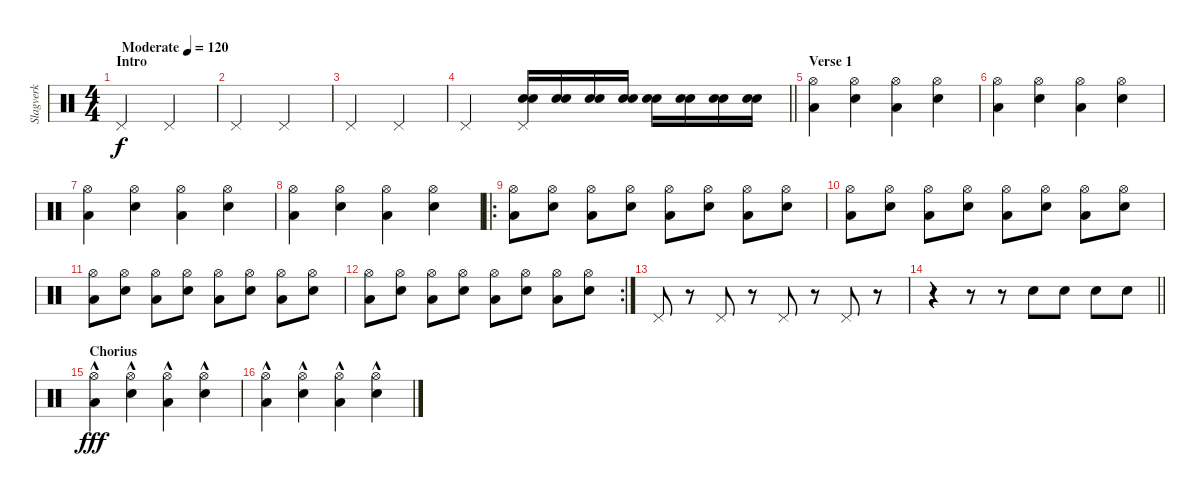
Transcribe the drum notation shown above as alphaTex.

\track ("Slagverk" "Slagverk") {instrument percussion}
\staff {score}
\articulation defaults
\ts (4 4)
\section ("" "Intro")
\tempo (120 "Moderate")
\clef neutral
\ks c "Pedal Hi-Hat (hit)".2{dy f} "Pedal Hi-Hat (hit)".2
|
"Pedal Hi-Hat (hit)".2 "Pedal Hi-Hat (hit)".2 |
"Pedal Hi-Hat (hit)".2 "Pedal Hi-Hat (hit)".2 |
\barLineRight lightlight "Pedal Hi-Hat (hit)".2
("Pedal Hi-Hat (hit)" "Electric Snare (hit)" "Electric Snare (hit)").16 ("Electric Snare (hit)" "Electric Snare (hit)").16 ("Electric Snare (hit)" "Electric Snare (hit)").16 ("Electric Snare (hit)" "Electric Snare (hit)").16 ("Electric Snare (hit)" "Electric Snare (hit)").16 ("Electric Snare (hit)" "Electric Snare (hit)").16 ("Electric Snare (hit)" "Electric Snare (hit)").16 ("Electric Snare (hit)" "Electric Snare (hit)").16 |
\section ("" "Verse 1")
("Hi-Hat (open)" "Low Floor Tom (hit)").4 ("Hi-Hat (open)" "Electric Snare (hit)").4 ("Hi-Hat (open)" "Low Floor Tom (hit)").4 ("Hi-Hat (open)" "Electric Snare (hit)").4 |
("Hi-Hat (open)" "Low Floor Tom (hit)").4 ("Hi-Hat (open)" "Electric Snare (hit)").4 ("Hi-Hat (open)" "Low Floor Tom (hit)").4 ("Hi-Hat (open)" "Electric Snare (hit)").4 |
("Hi-Hat (open)" "Low Floor Tom (hit)").4 ("Hi-Hat (open)" "Electric Snare (hit)").4 ("Hi-Hat (open)" "Low Floor Tom (hit)").4 ("Hi-Hat (open)" "Electric Snare (hit)").4 |
("Hi-Hat (open)" "Low Floor Tom (hit)").4 ("Hi-Hat (open)" "Electric Snare (hit)").4 ("Hi-Hat (open)" "Low Floor Tom (hit)").4 ("Hi-Hat (open)" "Electric Snare (hit)").4 |
\ro
("Hi-Hat (open)" "Low Floor Tom (hit)").8 ("Hi-Hat (open)" "Electric Snare (hit)").8 ("Hi-Hat (open)" "Low Floor Tom (hit)").8 ("Hi-Hat (open)" "Electric Snare (hit)").8 ("Hi-Hat (open)" "Low Floor Tom (hit)").8 ("Hi-Hat (open)" "Electric Snare (hit)").8 ("Hi-Hat (open)" "Low Floor Tom (hit)").8 ("Hi-Hat (open)" "Electric Snare (hit)").8 |
("Hi-Hat (open)" "Low Floor Tom (hit)").8 ("Hi-Hat (open)" "Electric Snare (hit)").8 ("Hi-Hat (open)" "Low Floor Tom (hit)").8 ("Hi-Hat (open)" "Electric Snare (hit)").8 ("Hi-Hat (open)" "Low Floor Tom (hit)").8 ("Hi-Hat (open)" "Electric Snare (hit)").8 ("Hi-Hat (open)" "Low Floor Tom (hit)").8 ("Hi-Hat (open)" "Electric Snare (hit)").8 |
("Hi-Hat (open)" "Low Floor Tom (hit)").8 ("Hi-Hat (open)" "Electric Snare (hit)").8 ("Hi-Hat (open)" "Low Floor Tom (hit)").8 ("Hi-Hat (open)" "Electric Snare (hit)").8 ("Hi-Hat (open)" "Low Floor Tom (hit)").8 ("Hi-Hat (open)" "Electric Snare (hit)").8 ("Hi-Hat (open)" "Low Floor Tom (hit)").8 ("Hi-Hat (open)" "Electric Snare (hit)").8 |
\rc 2
("Hi-Hat (open)" "Low Floor Tom (hit)").8 ("Hi-Hat (open)" "Electric Snare (hit)").8 ("Hi-Hat (open)" "Low Floor Tom (hit)").8 ("Hi-Hat (open)" "Electric Snare (hit)").8 ("Hi-Hat (open)" "Low Floor Tom (hit)").8 ("Hi-Hat (open)" "Electric Snare (hit)").8 ("Hi-Hat (open)" "Low Floor Tom (hit)").8 ("Hi-Hat (open)" "Electric Snare (hit)").8 |
"Pedal Hi-Hat (hit)".8 r.8 "Pedal Hi-Hat (hit)".8 r.8 "Pedal Hi-Hat (hit)".8 r.8 "Pedal Hi-Hat (hit)".8 r.8 |
\barLineRight lightlight
r.4 r.8 r.8 "Electric Snare (hit)".8 "Electric Snare (hit)".8 "Electric Snare (hit)".8 "Electric Snare (hit)".8 |
\section ("" "Chorius")
("Hi-Hat (open)"{hac} "Low Floor Tom (hit)"{hac}).4{dy fff} ("Hi-Hat (open)"{hac} "Electric Snare (hit)"{hac}).4 ("Hi-Hat (open)"{hac} "Low Floor Tom (hit)"{hac}).4 ("Hi-Hat (open)"{hac} "Electric Snare (hit)"{hac}).4 |
("Hi-Hat (open)"{hac} "Low Floor Tom (hit)"{hac}).4 ("Hi-Hat (open)"{hac} "Electric Snare (hit)"{hac}).4 ("Hi-Hat (open)"{hac} "Low Floor Tom (hit)"{hac}).4 ("Hi-Hat (open)"{hac} "Electric Snare (hit)"{hac}).4
